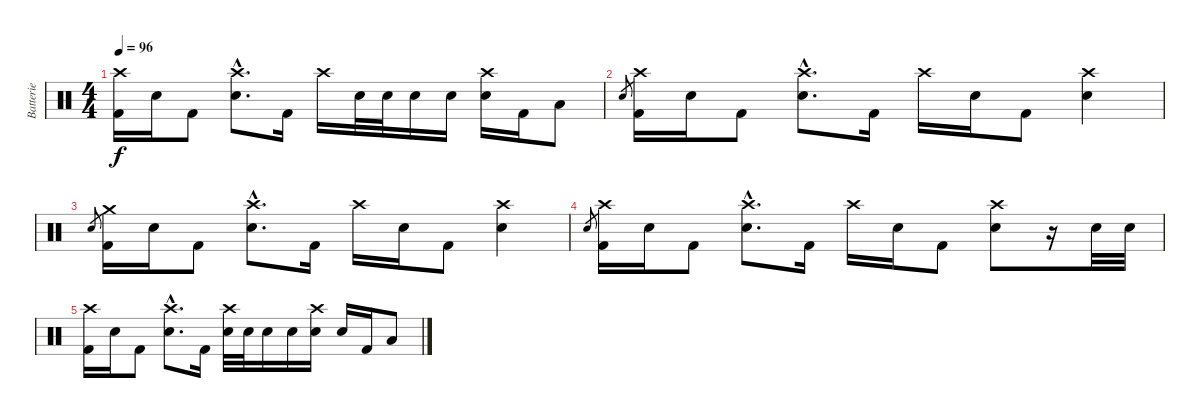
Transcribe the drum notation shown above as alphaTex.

\track ("Batterie" "Batterie") {instrument percussion}
\staff {score}
\articulation defaults
\ts (4 4)
\tempo 96
\clef neutral
\ks c
("Crash high (hit)" "Kick (hit) 2").16{dy f} "Snare (hit) 2".16 "Kick (hit) 2".8 ("Crash high (hit)"{hac} "Snare (hit) 2"{hac}).8{d} "Kick (hit) 2".16 "Crash high (hit)".16 "Snare (hit) 2".32 "Snare (hit) 2".32 "Snare (hit) 2".16 "Snare (hit) 2".16 ("Crash high (hit)" "Snare (hit) 2").16 "Kick (hit) 2".16 "Low Tom (hit)".8 |
"Snare (hit) 2".8{gr} ("Crash high (hit)" "Kick (hit) 2").16 "Snare (hit) 2".16 "Kick (hit) 2".8 ("Crash high (hit)"{hac} "Snare (hit) 2"{hac}).8{d} "Kick (hit) 2".16 "Crash high (hit)".16 "Snare (hit) 2".16 "Kick (hit) 2".8 ("Crash high (hit)" "Snare (hit) 2").4 |
"Snare (hit) 2".8{gr} ("Crash medium (hit)" "Kick (hit) 2").16 "Snare (hit) 2".16 "Kick (hit) 2".8 ("Crash high (hit)"{hac} "Snare (hit) 2"{hac}).8{d} "Kick (hit) 2".16 "Crash high (hit)".16 "Snare (hit) 2".16 "Kick (hit) 2".8 ("Crash high (hit)" "Snare (hit) 2").4 |
"Snare (hit) 2".8{gr} ("Crash high (hit)" "Kick (hit) 2").16 "Snare (hit) 2".16 "Kick (hit) 2".8 ("Crash high (hit)"{hac} "Snare (hit) 2"{hac}).8{d} "Kick (hit) 2".16 "Crash high (hit)".16 "Snare (hit) 2".16 "Kick (hit) 2".8 ("Crash high (hit)" "Snare (hit) 2").8 r.16 "Snare (hit) 2".32 "Snare (hit) 2".32 |
("Crash high (hit)" "Kick (hit) 2").16 "Snare (hit) 2".16 "Kick (hit) 2".8 ("Crash high (hit)"{hac} "Snare (hit) 2"{hac}).8{d} "Kick (hit) 2".16 ("Crash high (hit)" "Snare (hit) 2").32 "Snare (hit) 2".32 "Snare (hit) 2".16 "Snare (hit) 2".16 ("Crash high (hit)" "Snare (hit) 2").16 "Snare (hit) 2".16 "Kick (hit) 2".16 "Low Tom (hit)".8
